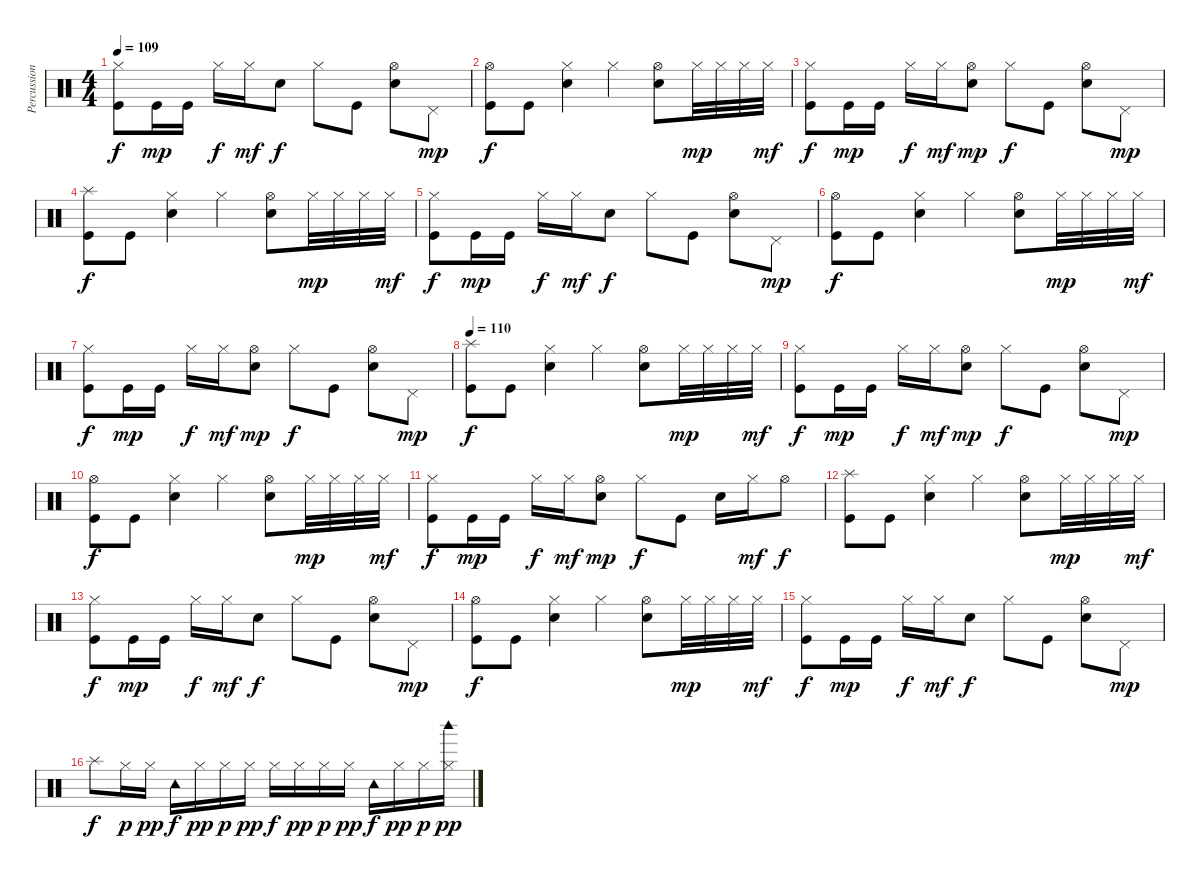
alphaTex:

\track ("Percussioni" "Percussion") {instrument percussion}
\staff {score}
\articulation defaults
\ts (4 4)
\tempo 109
\clef neutral
\ks c
("Hi-Hat (closed)" "Kick (hit)").8{dy f} "Kick (hit)".16{dy mp} "Kick (hit)".16 "Hi-Hat (closed)".16{dy f} "Hi-Hat (closed)".16{dy mf} "Snare (hit) 2".8{dy f} "Hi-Hat (closed)".8 "Kick (hit)".8 ("Hi-Hat (open)" "Snare (hit) 2").8 "Pedal Hi-Hat (hit)".8{dy mp} |
("Hi-Hat (open)" "Kick (hit)").8{dy f} "Kick (hit)".8 ("Hi-Hat (closed)" "Snare (hit) 2").4 "Hi-Hat (closed)".4 ("Hi-Hat (open)" "Snare (hit) 2").8 "Hi-Hat (closed)".32{dy mp} "Hi-Hat (closed)".32 "Hi-Hat (closed)".32 "Hi-Hat (closed)".32{dy mf} |
("Hi-Hat (closed)" "Kick (hit)").8{dy f} "Kick (hit)".16{dy mp} "Kick (hit)".16 "Hi-Hat (closed)".16{dy f} "Hi-Hat (closed)".16{dy mf} ("Hi-Hat (open)" "Snare (hit) 2").8{dy mp} "Hi-Hat (closed)".8{dy f} "Kick (hit)".8 ("Hi-Hat (open)" "Snare (hit) 2").8 "Pedal Hi-Hat (hit)".8{dy mp} |
("Splash (hit)" "Kick (hit)").8{dy f} "Kick (hit)".8 ("Hi-Hat (closed)" "Snare (hit) 2").4 "Hi-Hat (closed)".4 ("Hi-Hat (open)" "Snare (hit) 2").8 "Hi-Hat (closed)".32{dy mp} "Hi-Hat (closed)".32 "Hi-Hat (closed)".32 "Hi-Hat (closed)".32{dy mf} |
("Hi-Hat (closed)" "Kick (hit)").8{dy f} "Kick (hit)".16{dy mp} "Kick (hit)".16 "Hi-Hat (closed)".16{dy f} "Hi-Hat (closed)".16{dy mf} "Snare (hit) 2".8{dy f} "Hi-Hat (closed)".8 "Kick (hit)".8 ("Hi-Hat (open)" "Snare (hit) 2").8 "Pedal Hi-Hat (hit)".8{dy mp} |
("Hi-Hat (open)" "Kick (hit)").8{dy f} "Kick (hit)".8 ("Hi-Hat (closed)" "Snare (hit) 2").4 "Hi-Hat (closed)".4 ("Hi-Hat (open)" "Snare (hit) 2").8 "Hi-Hat (closed)".32{dy mp} "Hi-Hat (closed)".32 "Hi-Hat (closed)".32 "Hi-Hat (closed)".32{dy mf} |
("Hi-Hat (closed)" "Kick (hit)").8{dy f} "Kick (hit)".16{dy mp} "Kick (hit)".16 "Hi-Hat (closed)".16{dy f} "Hi-Hat (closed)".16{dy mf} ("Hi-Hat (open)" "Snare (hit) 2").8{dy mp} "Hi-Hat (closed)".8{dy f} "Kick (hit)".8 ("Hi-Hat (open)" "Snare (hit) 2").8 "Pedal Hi-Hat (hit)".8{dy mp} |
\tempo 110
("Splash (hit)" "Kick (hit)").8{dy f} "Kick (hit)".8 ("Hi-Hat (closed)" "Snare (hit) 2").4 "Hi-Hat (closed)".4 ("Hi-Hat (open)" "Snare (hit) 2").8 "Hi-Hat (closed)".32{dy mp} "Hi-Hat (closed)".32 "Hi-Hat (closed)".32 "Hi-Hat (closed)".32{dy mf} |
("Hi-Hat (closed)" "Kick (hit)").8{dy f} "Kick (hit)".16{dy mp} "Kick (hit)".16 "Hi-Hat (closed)".16{dy f} "Hi-Hat (closed)".16{dy mf} ("Hi-Hat (open)" "Snare (hit) 2").8{dy mp} "Hi-Hat (closed)".8{dy f} "Kick (hit)".8 ("Hi-Hat (open)" "Snare (hit) 2").8 "Pedal Hi-Hat (hit)".8{dy mp} |
("Hi-Hat (open)" "Kick (hit)").8{dy f} "Kick (hit)".8 ("Hi-Hat (closed)" "Snare (hit) 2").4 "Hi-Hat (closed)".4 ("Hi-Hat (open)" "Snare (hit) 2").8 "Hi-Hat (closed)".32{dy mp} "Hi-Hat (closed)".32 "Hi-Hat (closed)".32 "Hi-Hat (closed)".32{dy mf} |
("Hi-Hat (closed)" "Kick (hit)").8{dy f} "Kick (hit)".16{dy mp} "Kick (hit)".16 "Hi-Hat (closed)".16{dy f} "Hi-Hat (closed)".16{dy mf} ("Hi-Hat (open)" "Snare (hit) 2").8{dy mp} "Hi-Hat (closed)".8{dy f} "Kick (hit)".8 "Snare (hit) 2".16 "Hi-Hat (closed)".16{dy mf} "Hi-Hat (open)".8{dy f} |
("Splash (hit)" "Kick (hit)").8 "Kick (hit)".8 ("Hi-Hat (closed)" "Snare (hit) 2").4 "Hi-Hat (closed)".4 ("Hi-Hat (open)" "Snare (hit) 2").8 "Hi-Hat (closed)".32{dy mp} "Hi-Hat (closed)".32 "Hi-Hat (closed)".32 "Hi-Hat (closed)".32{dy mf} |
("Hi-Hat (closed)" "Kick (hit)").8{dy f} "Kick (hit)".16{dy mp} "Kick (hit)".16 "Hi-Hat (closed)".16{dy f} "Hi-Hat (closed)".16{dy mf} "Snare (hit) 2".8{dy f} "Hi-Hat (closed)".8 "Kick (hit)".8 ("Hi-Hat (open)" "Snare (hit) 2").8 "Pedal Hi-Hat (hit)".8{dy mp} |
("Hi-Hat (open)" "Kick (hit)").8{dy f} "Kick (hit)".8 ("Hi-Hat (closed)" "Snare (hit) 2").4 "Hi-Hat (closed)".4 ("Hi-Hat (open)" "Snare (hit) 2").8 "Hi-Hat (closed)".32{dy mp} "Hi-Hat (closed)".32 "Hi-Hat (closed)".32 "Hi-Hat (closed)".32{dy mf} |
("Hi-Hat (closed)" "Kick (hit)").8{dy f} "Kick (hit)".16{dy mp} "Kick (hit)".16 "Hi-Hat (closed)".16{dy f} "Hi-Hat (closed)".16{dy mf} "Snare (hit) 2".8{dy f} "Hi-Hat (closed)".8 "Kick (hit)".8 ("Hi-Hat (open)" "Snare (hit) 2").8 "Pedal Hi-Hat (hit)".8{dy mp} |
"Splash (hit)".8{dy f} "Hi-Hat (closed)".16{dy p} "Hi-Hat (closed)".16{dy pp} "Tambourine (hit)".16{dy f} "Hi-Hat (closed)".16{dy pp} "Hi-Hat (closed)".16{dy p} "Hi-Hat (closed)".16{dy pp} "Hi-Hat (closed)".16{dy f} "Hi-Hat (closed)".16{dy pp} "Hi-Hat (closed)".16{dy p} "Hi-Hat (closed)".16{dy pp} "Tambourine (hit)".16{dy f} "Hi-Hat (closed)".16{dy pp} "Hi-Hat (closed)".16{dy p} ("Woodblock high (hit)" "Hi-Hat (closed)").16{dy pp}
